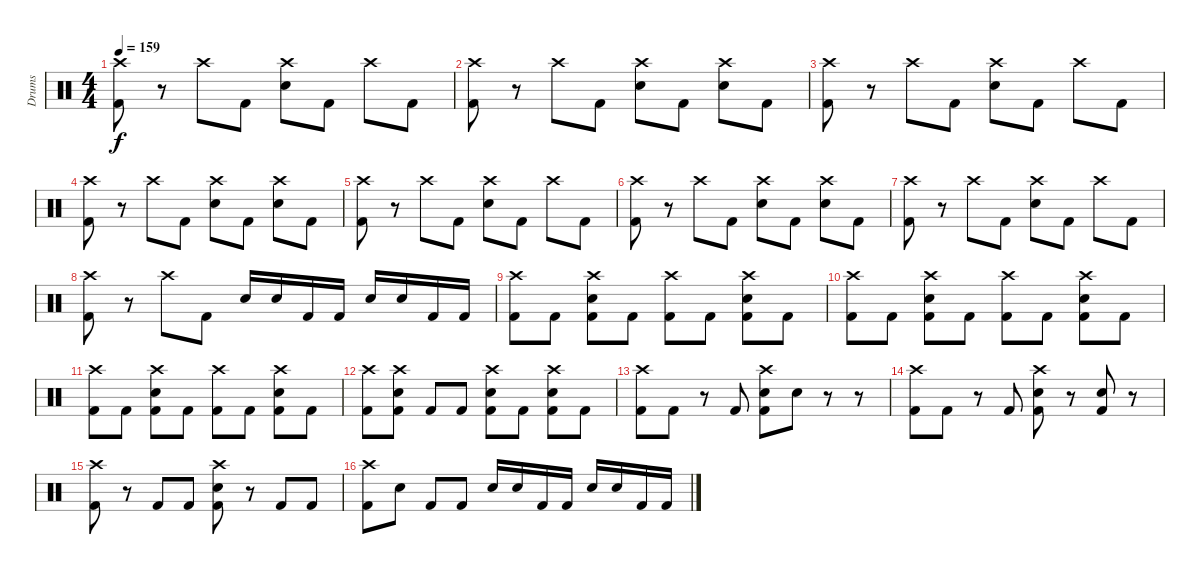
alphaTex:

\track ("Drums" "Drums") {instrument percussion}
\staff {score}
\articulation defaults
\ts (4 4)
\tempo 159
\clef neutral
\ks c
("Crash high (hit)" "Kick (hit) 2").8{dy f} r.8 "Crash high (hit)".8 "Kick (hit) 2".8 ("Crash high (hit)" "Electric Snare (hit)").8 "Kick (hit) 2".8 "Crash high (hit)".8 "Kick (hit) 2".8 |
("Crash high (hit)" "Kick (hit) 2").8 r.8 "Crash high (hit)".8 "Kick (hit) 2".8 ("Crash high (hit)" "Electric Snare (hit)").8 "Kick (hit) 2".8 ("Crash high (hit)" "Electric Snare (hit)").8 "Kick (hit) 2".8 |
("Crash high (hit)" "Kick (hit) 2").8 r.8 "Crash high (hit)".8 "Kick (hit) 2".8 ("Crash high (hit)" "Electric Snare (hit)").8 "Kick (hit) 2".8 "Crash high (hit)".8 "Kick (hit) 2".8 |
("Crash high (hit)" "Kick (hit) 2").8 r.8 "Crash high (hit)".8 "Kick (hit) 2".8 ("Crash high (hit)" "Electric Snare (hit)").8 "Kick (hit) 2".8 ("Crash high (hit)" "Electric Snare (hit)").8 "Kick (hit) 2".8 |
("Crash high (hit)" "Kick (hit) 2").8 r.8 "Crash high (hit)".8 "Kick (hit) 2".8 ("Crash high (hit)" "Electric Snare (hit)").8 "Kick (hit) 2".8 "Crash high (hit)".8 "Kick (hit) 2".8 |
("Crash high (hit)" "Kick (hit) 2").8 r.8 "Crash high (hit)".8 "Kick (hit) 2".8 ("Crash high (hit)" "Electric Snare (hit)").8 "Kick (hit) 2".8 ("Crash high (hit)" "Electric Snare (hit)").8 "Kick (hit) 2".8 |
("Crash high (hit)" "Kick (hit) 2").8 r.8 "Crash high (hit)".8 "Kick (hit) 2".8 ("Crash high (hit)" "Electric Snare (hit)").8 "Kick (hit) 2".8 "Crash high (hit)".8 "Kick (hit) 2".8 |
("Crash high (hit)" "Kick (hit) 2").8 r.8 "Crash high (hit)".8 "Kick (hit) 2".8 "Electric Snare (hit)".16 "Electric Snare (hit)".16 "Kick (hit) 2".16 "Kick (hit) 2".16 "Electric Snare (hit)".16 "Electric Snare (hit)".16 "Kick (hit) 2".16 "Kick (hit) 2".16 |
("Crash high (hit)" "Kick (hit) 2").8 "Kick (hit) 2".8 ("Crash high (hit)" "Electric Snare (hit)" "Kick (hit) 2").8 "Kick (hit) 2".8 ("Crash high (hit)" "Kick (hit) 2").8 "Kick (hit) 2".8 ("Crash high (hit)" "Electric Snare (hit)" "Kick (hit) 2").8 "Kick (hit) 2".8 |
("Crash high (hit)" "Kick (hit) 2").8 "Kick (hit) 2".8 ("Crash high (hit)" "Electric Snare (hit)" "Kick (hit) 2").8 "Kick (hit) 2".8 ("Crash high (hit)" "Kick (hit) 2").8 "Kick (hit) 2".8 ("Crash high (hit)" "Electric Snare (hit)" "Kick (hit) 2").8 "Kick (hit) 2".8 |
("Crash high (hit)" "Kick (hit) 2").8 "Kick (hit) 2".8 ("Crash high (hit)" "Electric Snare (hit)" "Kick (hit) 2").8 "Kick (hit) 2".8 ("Crash high (hit)" "Kick (hit) 2").8 "Kick (hit) 2".8 ("Crash high (hit)" "Electric Snare (hit)" "Kick (hit) 2").8 "Kick (hit) 2".8 |
("Crash high (hit)" "Kick (hit) 2").8 ("Crash high (hit)" "Electric Snare (hit)" "Kick (hit) 2").8 "Kick (hit) 2".8 "Kick (hit) 2".8 ("Crash high (hit)" "Electric Snare (hit)" "Kick (hit) 2").8 "Kick (hit) 2".8 ("Crash high (hit)" "Electric Snare (hit)" "Kick (hit) 2").8 "Kick (hit) 2".8 |
("Crash high (hit)" "Kick (hit) 2").8 "Kick (hit) 2".8 r.8 "Kick (hit) 2".8 ("Crash high (hit)" "Electric Snare (hit)" "Kick (hit) 2").8 "Electric Snare (hit)".8 r.8 r.8 |
("Crash high (hit)" "Kick (hit) 2").8 "Kick (hit) 2".8 r.8 "Kick (hit) 2".8 ("Crash high (hit)" "Electric Snare (hit)" "Kick (hit) 2").8 r.8 ("Electric Snare (hit)" "Kick (hit) 2").8 r.8 |
("Crash high (hit)" "Kick (hit) 2").8 r.8 "Kick (hit) 2".8 "Kick (hit) 2".8 ("Crash high (hit)" "Electric Snare (hit)" "Kick (hit) 2").8 r.8 "Kick (hit) 2".8 "Kick (hit) 2".8 |
("Crash high (hit)" "Kick (hit) 2").8 "Electric Snare (hit)".8 "Kick (hit) 2".8 "Kick (hit) 2".8 "Electric Snare (hit)".16 "Electric Snare (hit)".16 "Kick (hit) 2".16 "Kick (hit) 2".16 "Electric Snare (hit)".16 "Electric Snare (hit)".16 "Kick (hit) 2".16 "Kick (hit) 2".16
